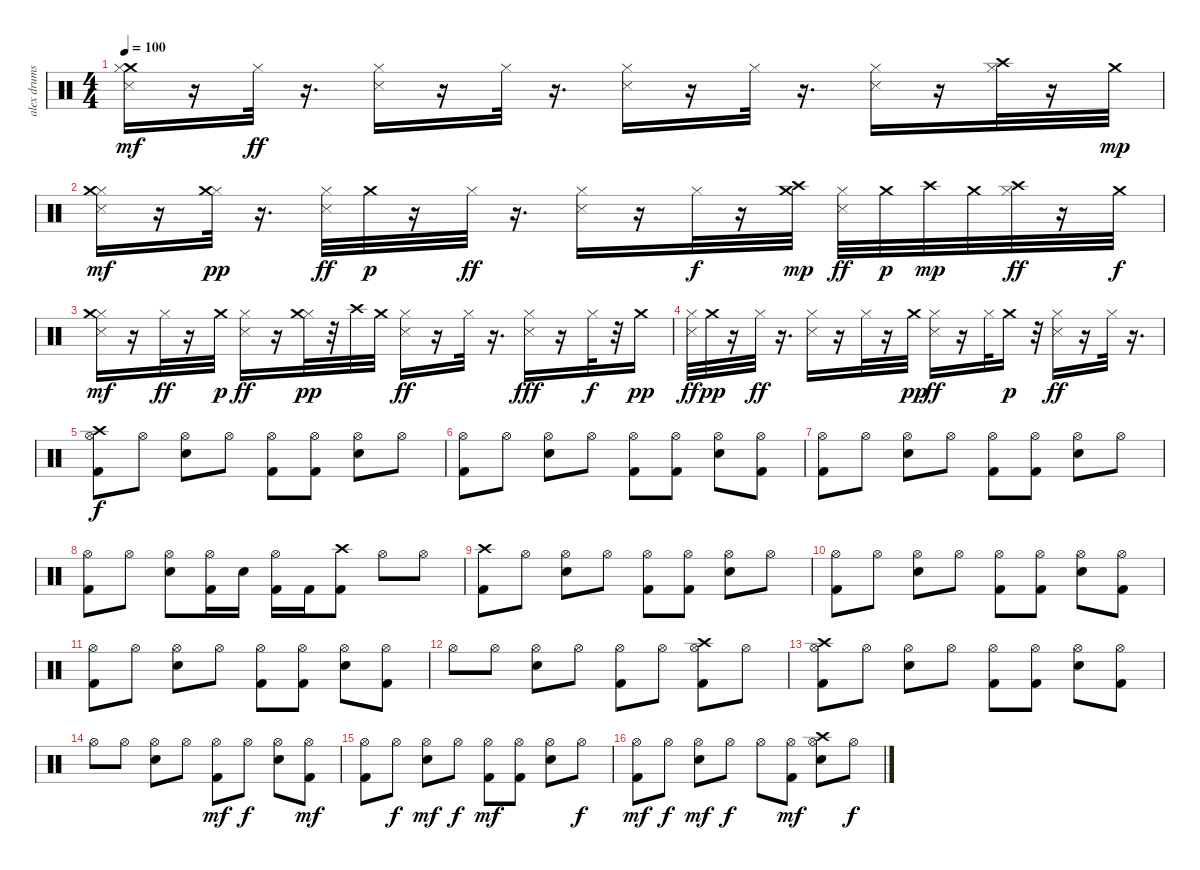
\track ("alex drums" "alex drums") {instrument percussion}
\staff {score}
\articulation defaults
\ts (4 4)
\tempo 100
\clef neutral
\ks c
("Crash medium (hit)" "Snare (side stick) 3" "Hi-Hat (closed)").16{dy mf} r.16 "Hi-Hat (closed)".32{dy ff} r.16{d} ("Hi-Hat (closed)" "Snare (side stick) 3").16 r.16 "Hi-Hat (closed)".32 r.16{d} ("Hi-Hat (closed)" "Snare (side stick) 3").16 r.16 "Hi-Hat (closed)".32 r.16{d} ("Hi-Hat (closed)" "Snare (side stick) 3").16 r.16 ("Crash high (hit)" "Hi-Hat (closed)").32 r.16 "Crash medium (hit)".32{dy mp} |
("Hi-Hat (closed)" "Snare (side stick) 3" "Crash medium (hit)").16{dy mf} r.16 ("Hi-Hat (closed)" "Crash medium (hit)").32{dy pp} r.16{d} ("Hi-Hat (closed)" "Snare (side stick) 3").32{dy ff} "Crash medium (hit)".32{dy p} r.16 "Hi-Hat (closed)".32{dy ff} r.16{d} ("Snare (side stick) 3" "Hi-Hat (closed)").16 r.16 "Hi-Hat (closed)".32{dy f} r.16 ("Crash medium (hit)" "Crash high (hit)").32{dy mp} ("Snare (side stick) 3" "Hi-Hat (closed)").32{dy ff} "Crash medium (hit)".32{dy p} "Crash high (hit)".32{dy mp} "Crash medium (hit)".32 ("Hi-Hat (closed)" "Crash high (hit)").32{dy ff} r.16 "Crash medium (hit)".32{dy f} |
("Snare (side stick) 3" "Hi-Hat (closed)" "Crash medium (hit)").16{dy mf} r.16 "Hi-Hat (closed)".32{dy ff} r.16 "Crash medium (hit)".32{dy p} ("Snare (side stick) 3" "Hi-Hat (closed)").16{dy ff} r.16 ("Hi-Hat (closed)" "Crash medium (hit)").32{dy pp} r.32 "Crash high (hit)".32 "Crash medium (hit)".32 ("Snare (side stick) 3" "Hi-Hat (closed)").16{dy ff} r.16 "Hi-Hat (closed)".32 r.16{d} ("Snare (side stick) 3" "Hi-Hat (closed)").16{dy fff} r.16 "Hi-Hat (closed)".32{dy f} r.32 "Crash medium (hit)".16{dy pp} |
("Hi-Hat (closed)" "Snare (side stick) 3").32{dy ff} "Crash medium (hit)".32{dy pp} r.16 "Hi-Hat (closed)".32{dy ff} r.16{d} ("Snare (side stick) 3" "Hi-Hat (closed)").16 r.16 "Hi-Hat (closed)".32 r.16 "Crash medium (hit)".32{dy pp} ("Snare (side stick) 3" "Hi-Hat (closed)").16{dy ff} r.16 "Hi-Hat (closed)".32 "Crash medium (hit)".16{dy p} r.32 ("Snare (side stick) 3" "Hi-Hat (closed)").16{dy ff} r.16 "Hi-Hat (closed)".32 r.16{d} |
("Kick (hit) 2" "Hi-Hat (open)" "Crash high (hit)").8{dy f} "Hi-Hat (open)".8 ("Electric Snare (hit)" "Hi-Hat (open)").8 "Hi-Hat (open)".8 ("Kick (hit) 2" "Hi-Hat (open)").8 ("Kick (hit) 2" "Hi-Hat (open)").8 ("Electric Snare (hit)" "Hi-Hat (open)").8 "Hi-Hat (open)".8 |
("Kick (hit) 2" "Hi-Hat (open)").8 "Hi-Hat (open)".8 ("Electric Snare (hit)" "Hi-Hat (open)").8 "Hi-Hat (open)".8 ("Kick (hit) 2" "Hi-Hat (open)").8 ("Kick (hit) 2" "Hi-Hat (open)").8 ("Electric Snare (hit)" "Hi-Hat (open)").8 ("Kick (hit) 2" "Hi-Hat (open)").8 |
("Kick (hit) 2" "Hi-Hat (open)").8 "Hi-Hat (open)".8 ("Electric Snare (hit)" "Hi-Hat (open)").8 "Hi-Hat (open)".8 ("Kick (hit) 2" "Hi-Hat (open)").8 ("Kick (hit) 2" "Hi-Hat (open)").8 ("Electric Snare (hit)" "Hi-Hat (open)").8 "Hi-Hat (open)".8 |
("Kick (hit) 2" "Hi-Hat (open)").8 "Hi-Hat (open)".8 ("Electric Snare (hit)" "Hi-Hat (open)").8 ("Kick (hit) 2" "Hi-Hat (open)").16 "Electric Snare (hit)".16 ("Kick (hit) 2" "Hi-Hat (open)").16 "Kick (hit) 2".16 ("Kick (hit) 2" "Crash high (hit)").8 "Hi-Hat (open)".8 "Hi-Hat (open)".8 |
("Kick (hit) 2" "Crash high (hit)").8 "Hi-Hat (open)".8 ("Electric Snare (hit)" "Hi-Hat (open)").8 "Hi-Hat (open)".8 ("Kick (hit) 2" "Hi-Hat (open)").8 ("Kick (hit) 2" "Hi-Hat (open)").8 ("Electric Snare (hit)" "Hi-Hat (open)").8 "Hi-Hat (open)".8 |
("Kick (hit) 2" "Hi-Hat (open)").8 "Hi-Hat (open)".8 ("Electric Snare (hit)" "Hi-Hat (open)").8 "Hi-Hat (open)".8 ("Kick (hit) 2" "Hi-Hat (open)").8 ("Kick (hit) 2" "Hi-Hat (open)").8 ("Electric Snare (hit)" "Hi-Hat (open)").8 ("Kick (hit) 2" "Hi-Hat (open)").8 |
("Kick (hit) 2" "Hi-Hat (open)").8 "Hi-Hat (open)".8 ("Electric Snare (hit)" "Hi-Hat (open)").8 "Hi-Hat (open)".8 ("Kick (hit) 2" "Hi-Hat (open)").8 ("Kick (hit) 2" "Hi-Hat (open)").8 ("Electric Snare (hit)" "Hi-Hat (open)").8 ("Kick (hit) 2" "Hi-Hat (open)").8 |
"Hi-Hat (open)".8 "Hi-Hat (open)".8 ("Electric Snare (hit)" "Hi-Hat (open)").8 "Hi-Hat (open)".8 ("Kick (hit) 2" "Hi-Hat (open)").8 "Hi-Hat (open)".8 ("Kick (hit) 2" "Hi-Hat (open)" "Crash high (hit)").8 "Hi-Hat (open)".8 |
("Crash high (hit)" "Hi-Hat (open)" "Kick (hit) 2").8 "Hi-Hat (open)".8 ("Hi-Hat (open)" "Electric Snare (hit)").8 "Hi-Hat (open)".8 ("Hi-Hat (open)" "Kick (hit) 2").8 ("Hi-Hat (open)" "Kick (hit) 2").8 ("Hi-Hat (open)" "Electric Snare (hit)").8 ("Hi-Hat (open)" "Kick (hit) 2").8 |
"Hi-Hat (open)".8 "Hi-Hat (open)".8 ("Hi-Hat (open)" "Electric Snare (hit)").8 "Hi-Hat (open)".8 ("Kick (hit) 2" "Hi-Hat (open)").8{dy mf} "Hi-Hat (open)".8{dy f} ("Hi-Hat (open)" "Electric Snare (hit)").8 ("Kick (hit) 2" "Hi-Hat (open)").8{dy mf} |
("Kick (hit) 2" "Hi-Hat (open)").8 "Hi-Hat (open)".8{dy f} ("Electric Snare (hit)" "Hi-Hat (open)").8{dy mf} "Hi-Hat (open)".8{dy f} ("Kick (hit) 2" "Hi-Hat (open)").8{dy mf} ("Kick (hit) 2" "Hi-Hat (open)").8 ("Electric Snare (hit)" "Hi-Hat (open)").8 "Hi-Hat (open)".8{dy f} |
("Kick (hit) 2" "Hi-Hat (open)").8{dy mf} "Hi-Hat (open)".8{dy f} ("Electric Snare (hit)" "Hi-Hat (open)").8{dy mf} "Hi-Hat (open)".8{dy f} "Hi-Hat (open)".8 ("Kick (hit) 2" "Hi-Hat (open)").8{dy mf} ("Electric Snare (hit)" "Crash high (hit)" "Hi-Hat (open)").8 "Hi-Hat (open)".8{dy f}
